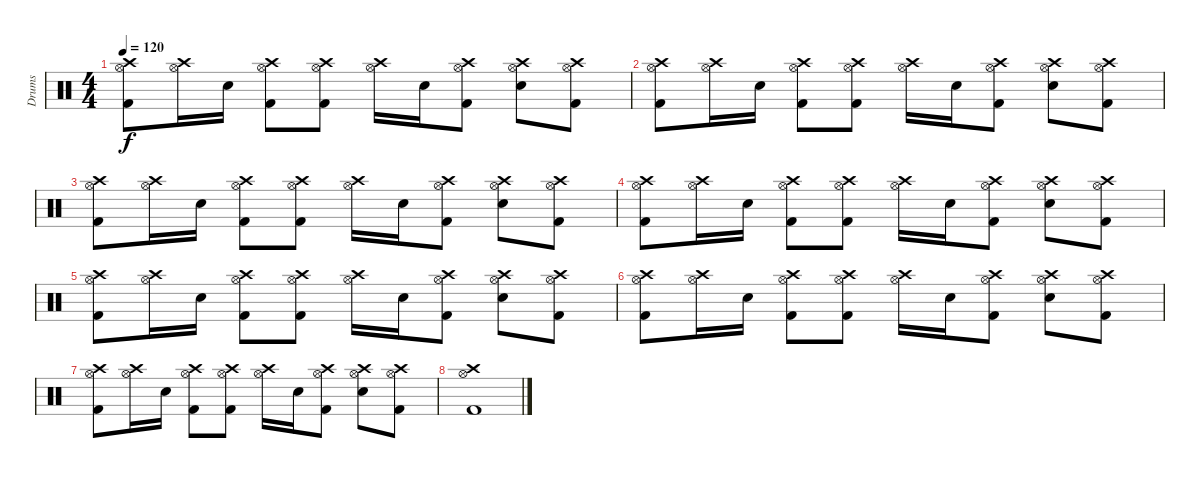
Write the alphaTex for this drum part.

\track ("Drums" "Drums") {instrument percussion}
\staff {score}
\articulation defaults
\ts (4 4)
\tempo 120
\clef neutral
\ks c
("Hi-Hat (open)" "Crash high (hit)" "Kick (hit) 2").8{dy f} ("Hi-Hat (open)" "Crash high (hit)").16 "Electric Snare (hit)".16 ("Hi-Hat (open)" "Crash high (hit)" "Kick (hit) 2").8 ("Hi-Hat (open)" "Crash high (hit)" "Kick (hit) 2").8 ("Hi-Hat (open)" "Crash high (hit)").16 "Electric Snare (hit)".16 ("Hi-Hat (open)" "Crash high (hit)" "Kick (hit) 2").8 ("Hi-Hat (open)" "Crash high (hit)" "Electric Snare (hit)").8 ("Hi-Hat (open)" "Crash high (hit)" "Kick (hit) 2").8 |
("Hi-Hat (open)" "Crash high (hit)" "Kick (hit) 2").8 ("Hi-Hat (open)" "Crash high (hit)").16 "Electric Snare (hit)".16 ("Hi-Hat (open)" "Crash high (hit)" "Kick (hit) 2").8 ("Hi-Hat (open)" "Crash high (hit)" "Kick (hit) 2").8 ("Hi-Hat (open)" "Crash high (hit)").16 "Electric Snare (hit)".16 ("Hi-Hat (open)" "Crash high (hit)" "Kick (hit) 2").8 ("Hi-Hat (open)" "Crash high (hit)" "Electric Snare (hit)").8 ("Hi-Hat (open)" "Crash high (hit)" "Kick (hit) 2").8 |
("Hi-Hat (open)" "Crash high (hit)" "Kick (hit) 2").8 ("Hi-Hat (open)" "Crash high (hit)").16 "Electric Snare (hit)".16 ("Hi-Hat (open)" "Crash high (hit)" "Kick (hit) 2").8 ("Hi-Hat (open)" "Crash high (hit)" "Kick (hit) 2").8 ("Hi-Hat (open)" "Crash high (hit)").16 "Electric Snare (hit)".16 ("Hi-Hat (open)" "Crash high (hit)" "Kick (hit) 2").8 ("Hi-Hat (open)" "Crash high (hit)" "Electric Snare (hit)").8 ("Hi-Hat (open)" "Crash high (hit)" "Kick (hit) 2").8 |
("Hi-Hat (open)" "Crash high (hit)" "Kick (hit) 2").8 ("Hi-Hat (open)" "Crash high (hit)").16 "Electric Snare (hit)".16 ("Hi-Hat (open)" "Crash high (hit)" "Kick (hit) 2").8 ("Hi-Hat (open)" "Crash high (hit)" "Kick (hit) 2").8 ("Hi-Hat (open)" "Crash high (hit)").16 "Electric Snare (hit)".16 ("Hi-Hat (open)" "Crash high (hit)" "Kick (hit) 2").8 ("Hi-Hat (open)" "Crash high (hit)" "Electric Snare (hit)").8 ("Hi-Hat (open)" "Crash high (hit)" "Kick (hit) 2").8 |
("Hi-Hat (open)" "Crash high (hit)" "Kick (hit) 2").8 ("Hi-Hat (open)" "Crash high (hit)").16 "Electric Snare (hit)".16 ("Hi-Hat (open)" "Crash high (hit)" "Kick (hit) 2").8 ("Hi-Hat (open)" "Crash high (hit)" "Kick (hit) 2").8 ("Hi-Hat (open)" "Crash high (hit)").16 "Electric Snare (hit)".16 ("Hi-Hat (open)" "Crash high (hit)" "Kick (hit) 2").8 ("Hi-Hat (open)" "Crash high (hit)" "Electric Snare (hit)").8 ("Hi-Hat (open)" "Crash high (hit)" "Kick (hit) 2").8 |
("Hi-Hat (open)" "Crash high (hit)" "Kick (hit) 2").8 ("Hi-Hat (open)" "Crash high (hit)").16 "Electric Snare (hit)".16 ("Hi-Hat (open)" "Crash high (hit)" "Kick (hit) 2").8 ("Hi-Hat (open)" "Crash high (hit)" "Kick (hit) 2").8 ("Hi-Hat (open)" "Crash high (hit)").16 "Electric Snare (hit)".16 ("Hi-Hat (open)" "Crash high (hit)" "Kick (hit) 2").8 ("Hi-Hat (open)" "Crash high (hit)" "Electric Snare (hit)").8 ("Hi-Hat (open)" "Crash high (hit)" "Kick (hit) 2").8 |
("Hi-Hat (open)" "Crash high (hit)" "Kick (hit) 2").8 ("Hi-Hat (open)" "Crash high (hit)").16 "Electric Snare (hit)".16 ("Hi-Hat (open)" "Crash high (hit)" "Kick (hit) 2").8 ("Hi-Hat (open)" "Crash high (hit)" "Kick (hit) 2").8 ("Hi-Hat (open)" "Crash high (hit)").16 "Electric Snare (hit)".16 ("Hi-Hat (open)" "Crash high (hit)" "Kick (hit) 2").8 ("Hi-Hat (open)" "Crash high (hit)" "Electric Snare (hit)").8 ("Hi-Hat (open)" "Crash high (hit)" "Kick (hit) 2").8 |
("Hi-Hat (open)" "Crash high (hit)" "Kick (hit) 2").1
